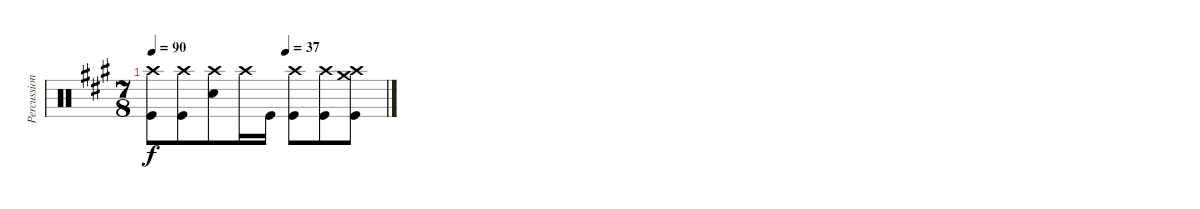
\track ("Percussion" "Percussion") {instrument percussion}
\staff {score}
\articulation defaults
\ts (7 8)
\tempo 90
\tempo (37 0.5714285714285714)
\clef neutral
\ks a
("Kick (hit)" "Crash high (hit)").8{dy f} ("Crash high (hit)" "Kick (hit)").8 ("Snare (hit) 2" "Crash high (hit)").8 "Crash high (hit)".16 "Kick (hit)".16 ("Crash high (hit)" "Kick (hit)").8 ("Kick (hit)" "Crash high (hit)").8 ("Kick (hit)" "Crash high (hit)" "Crash medium (hit)").8
